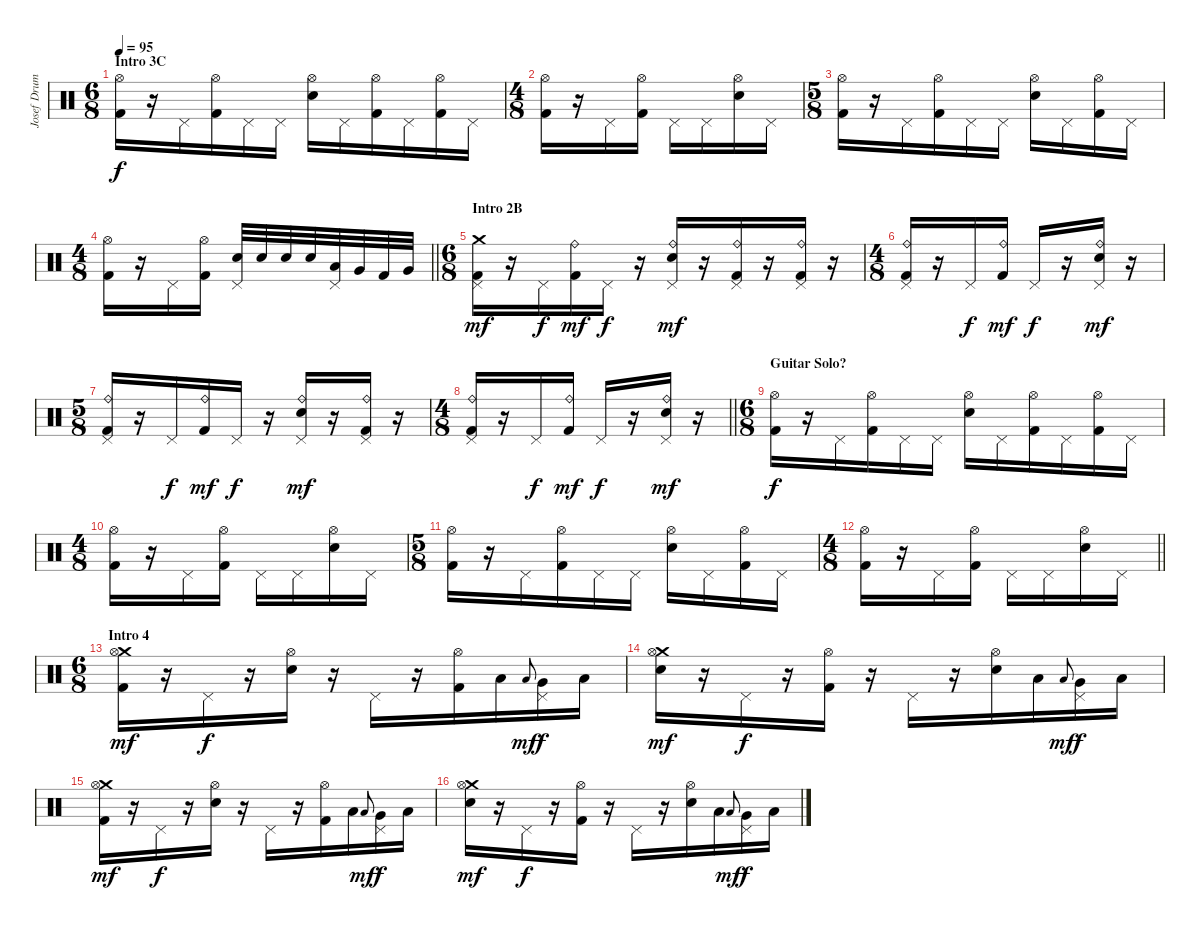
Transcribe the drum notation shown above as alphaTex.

\track ("Josef Drums" "Josef Drum") {instrument percussion}
\staff {score}
\articulation defaults
\ts (6 8)
\section ("" "Intro 3C")
\tempo 95
\clef neutral
\ks c
("Kick (hit) 2" "Hi-Hat (open)").16{dy f} r.16 "Pedal Hi-Hat (hit)".16 ("Kick (hit) 2" "Hi-Hat (open)").16 "Pedal Hi-Hat (hit)".16 "Pedal Hi-Hat (hit)".16 ("Electric Snare (hit)" "Hi-Hat (open)").16 "Pedal Hi-Hat (hit)".16 ("Kick (hit) 2" "Hi-Hat (open)").16 "Pedal Hi-Hat (hit)".16 ("Kick (hit) 2" "Hi-Hat (open)").16 "Pedal Hi-Hat (hit)".16 |
\ts (4 8)
("Kick (hit) 2" "Hi-Hat (open)").16 r.16 "Pedal Hi-Hat (hit)".16 ("Kick (hit) 2" "Hi-Hat (open)").16 "Pedal Hi-Hat (hit)".16 "Pedal Hi-Hat (hit)".16 ("Electric Snare (hit)" "Hi-Hat (open)").16 "Pedal Hi-Hat (hit)".16 |
\ts (5 8)
("Kick (hit) 2" "Hi-Hat (open)").16 r.16 "Pedal Hi-Hat (hit)".16 ("Kick (hit) 2" "Hi-Hat (open)").16 "Pedal Hi-Hat (hit)".16 "Pedal Hi-Hat (hit)".16 ("Electric Snare (hit)" "Hi-Hat (open)").16 "Pedal Hi-Hat (hit)".16 ("Kick (hit) 2" "Hi-Hat (open)").16 "Pedal Hi-Hat (hit)".16 |
\ts (4 8)
\barLineRight lightlight
("Kick (hit) 2" "Hi-Hat (open)").16 r.16 "Pedal Hi-Hat (hit)".16 ("Kick (hit) 2" "Hi-Hat (open)").16 ("Electric Snare (hit)" "Pedal Hi-Hat (hit)").32 "Electric Snare (hit)".32 "Electric Snare (hit)".32 "Electric Snare (hit)".32 ("Low Tom (hit)" "Pedal Hi-Hat (hit)").32 "Very Low Tom (hit)".32 "Kick (hit) 2".32 "Very Low Tom (hit)".32 |
\ts (6 8)
\section ("" "Intro 2B")
("Crash medium (hit)" "Kick (hit) 2" "Pedal Hi-Hat (hit)").16{dy mf} r.16 "Pedal Hi-Hat (hit)".16{dy f} ("Ride (bell)" "Kick (hit) 2").16{dy mf} "Pedal Hi-Hat (hit)".16{dy f} r.16 ("Ride (bell)" "Electric Snare (hit)" "Pedal Hi-Hat (hit)").16{dy mf} r.16 ("Ride (bell)" "Kick (hit) 2" "Pedal Hi-Hat (hit)").16 r.16 ("Ride (bell)" "Kick (hit) 2" "Pedal Hi-Hat (hit)").16 r.16 |
\ts (4 8)
("Ride (bell)" "Kick (hit) 2" "Pedal Hi-Hat (hit)").16 r.16 "Pedal Hi-Hat (hit)".16{dy f} ("Ride (bell)" "Kick (hit) 2").16{dy mf} "Pedal Hi-Hat (hit)".16{dy f} r.16 ("Ride (bell)" "Electric Snare (hit)" "Pedal Hi-Hat (hit)").16{dy mf} r.16 |
\ts (5 8)
("Ride (bell)" "Kick (hit) 2" "Pedal Hi-Hat (hit)").16 r.16 "Pedal Hi-Hat (hit)".16{dy f} ("Ride (bell)" "Kick (hit) 2").16{dy mf} "Pedal Hi-Hat (hit)".16{dy f} r.16 ("Ride (bell)" "Electric Snare (hit)" "Pedal Hi-Hat (hit)").16{dy mf} r.16 ("Ride (bell)" "Kick (hit) 2" "Pedal Hi-Hat (hit)").16 r.16 |
\ts (4 8)
\barLineRight lightlight
("Ride (bell)" "Kick (hit) 2" "Pedal Hi-Hat (hit)").16 r.16 "Pedal Hi-Hat (hit)".16{dy f} ("Ride (bell)" "Kick (hit) 2").16{dy mf} "Pedal Hi-Hat (hit)".16{dy f} r.16 ("Ride (bell)" "Electric Snare (hit)" "Pedal Hi-Hat (hit)").16{dy mf} r.16 |
\ts (6 8)
\section ("" "Guitar Solo?")
("Kick (hit) 2" "Hi-Hat (open)").16{dy f} r.16 "Pedal Hi-Hat (hit)".16 ("Kick (hit) 2" "Hi-Hat (open)").16 "Pedal Hi-Hat (hit)".16 "Pedal Hi-Hat (hit)".16 ("Electric Snare (hit)" "Hi-Hat (open)").16 "Pedal Hi-Hat (hit)".16 ("Kick (hit) 2" "Hi-Hat (open)").16 "Pedal Hi-Hat (hit)".16 ("Kick (hit) 2" "Hi-Hat (open)").16 "Pedal Hi-Hat (hit)".16 |
\ts (4 8)
("Kick (hit) 2" "Hi-Hat (open)").16 r.16 "Pedal Hi-Hat (hit)".16 ("Kick (hit) 2" "Hi-Hat (open)").16 "Pedal Hi-Hat (hit)".16 "Pedal Hi-Hat (hit)".16 ("Electric Snare (hit)" "Hi-Hat (open)").16 "Pedal Hi-Hat (hit)".16 |
\ts (5 8)
("Kick (hit) 2" "Hi-Hat (open)").16 r.16 "Pedal Hi-Hat (hit)".16 ("Kick (hit) 2" "Hi-Hat (open)").16 "Pedal Hi-Hat (hit)".16 "Pedal Hi-Hat (hit)".16 ("Electric Snare (hit)" "Hi-Hat (open)").16 "Pedal Hi-Hat (hit)".16 ("Kick (hit) 2" "Hi-Hat (open)").16 "Pedal Hi-Hat (hit)".16 |
\ts (4 8)
\barLineRight lightlight
("Kick (hit) 2" "Hi-Hat (open)").16 r.16 "Pedal Hi-Hat (hit)".16 ("Kick (hit) 2" "Hi-Hat (open)").16 "Pedal Hi-Hat (hit)".16 "Pedal Hi-Hat (hit)".16 ("Electric Snare (hit)" "Hi-Hat (open)").16 "Pedal Hi-Hat (hit)".16 |
\ts (6 8)
\section ("" "Intro 4")
("Crash medium (hit)" "Kick (hit) 2" "Hi-Hat (open)").16{dy mf} r.16 "Pedal Hi-Hat (hit)".16{dy f} r.16 ("Electric Snare (hit)" "Hi-Hat (open)").16 r.16 "Pedal Hi-Hat (hit)".16 r.16 ("Kick (hit) 2" "Hi-Hat (open)").16 "Low Tom (hit)".16 "Low Tom (hit)".8{gr onbeat dy mf} ("Very Low Tom (hit)" "Pedal Hi-Hat (hit)").16{dy f} "Low Floor Tom (hit)".16 |
("Crash medium (hit)" "Electric Snare (hit)" "Hi-Hat (open)").16{dy mf} r.16 "Pedal Hi-Hat (hit)".16{dy f} r.16 ("Kick (hit) 2" "Hi-Hat (open)").16 r.16 "Pedal Hi-Hat (hit)".16 r.16 ("Electric Snare (hit)" "Hi-Hat (open)").16 "Low Tom (hit)".16 "Low Tom (hit)".8{gr onbeat dy mf} ("Very Low Tom (hit)" "Pedal Hi-Hat (hit)").16{dy f} "Low Floor Tom (hit)".16 |
("Crash medium (hit)" "Kick (hit) 2" "Hi-Hat (open)").16{dy mf} r.16 "Pedal Hi-Hat (hit)".16{dy f} r.16 ("Electric Snare (hit)" "Hi-Hat (open)").16 r.16 "Pedal Hi-Hat (hit)".16 r.16 ("Kick (hit) 2" "Hi-Hat (open)").16 "Low Tom (hit)".16 "Low Tom (hit)".8{gr onbeat dy mf} ("Very Low Tom (hit)" "Pedal Hi-Hat (hit)").16{dy f} "Low Floor Tom (hit)".16 |
("Crash medium (hit)" "Electric Snare (hit)" "Hi-Hat (open)").16{dy mf} r.16 "Pedal Hi-Hat (hit)".16{dy f} r.16 ("Kick (hit) 2" "Hi-Hat (open)").16 r.16 "Pedal Hi-Hat (hit)".16 r.16 ("Electric Snare (hit)" "Hi-Hat (open)").16 "Low Tom (hit)".16 "Low Tom (hit)".8{gr onbeat dy mf} ("Very Low Tom (hit)" "Pedal Hi-Hat (hit)").16{dy f} "Low Floor Tom (hit)".16
